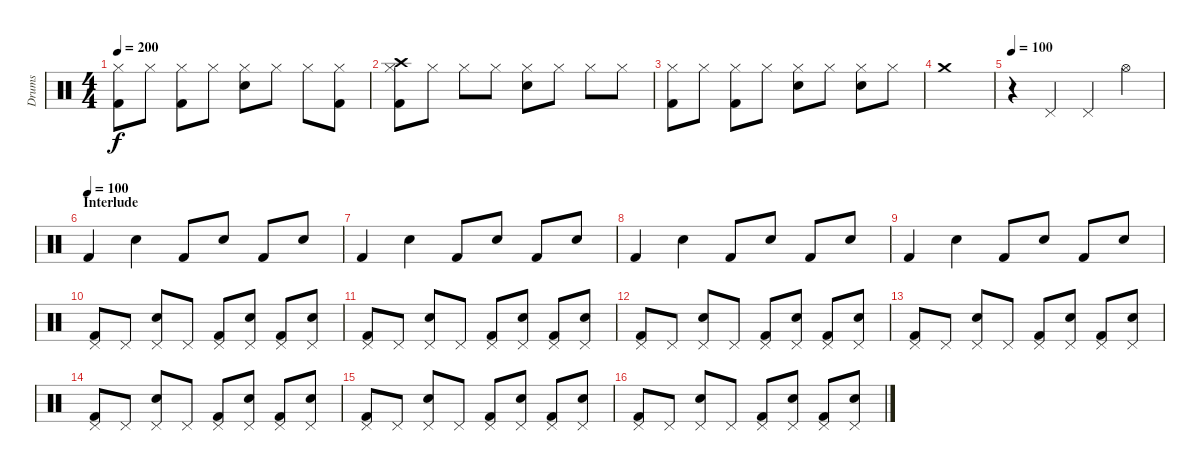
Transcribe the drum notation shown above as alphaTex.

\track ("Drums" "Drums") {instrument percussion}
\staff {score}
\articulation defaults
\ts (4 4)
\tempo 200
\clef neutral
\ks c
("Hi-Hat (closed)" "Kick (hit) 2").8{dy f} "Hi-Hat (closed)".8 ("Hi-Hat (closed)" "Kick (hit) 2").8 "Hi-Hat (closed)".8 ("Hi-Hat (closed)" "Electric Snare (hit)").8 "Hi-Hat (closed)".8 "Hi-Hat (closed)".8 ("Hi-Hat (closed)" "Kick (hit) 2").8 |
("Crash high (hit)" "Hi-Hat (closed)" "Kick (hit) 2").8 "Hi-Hat (closed)".8 "Hi-Hat (closed)".8 "Hi-Hat (closed)".8 ("Hi-Hat (closed)" "Electric Snare (hit)").8 "Hi-Hat (closed)".8 "Hi-Hat (closed)".8 "Hi-Hat (closed)".8 |
("Hi-Hat (closed)" "Kick (hit) 2").8 "Hi-Hat (closed)".8 ("Hi-Hat (closed)" "Kick (hit) 2").8 "Hi-Hat (closed)".8 ("Hi-Hat (closed)" "Electric Snare (hit)").8 "Hi-Hat (closed)".8 ("Hi-Hat (closed)" "Electric Snare (hit)").8 "Hi-Hat (closed)".8 |
"Crash medium (hit)".1 |
\tempo 100
r.4 "Pedal Hi-Hat (hit)".4 "Pedal Hi-Hat (hit)".4 "Hi-Hat (open)".4 |
\section ("" "Interlude")
\tempo (100)
"Kick (hit) 2".4 "Electric Snare (hit)".4 "Kick (hit) 2".8 "Electric Snare (hit)".8 "Kick (hit) 2".8 "Electric Snare (hit)".8 |
"Kick (hit) 2".4 "Electric Snare (hit)".4 "Kick (hit) 2".8 "Electric Snare (hit)".8 "Kick (hit) 2".8 "Electric Snare (hit)".8 |
"Kick (hit) 2".4 "Electric Snare (hit)".4 "Kick (hit) 2".8 "Electric Snare (hit)".8 "Kick (hit) 2".8 "Electric Snare (hit)".8 |
"Kick (hit) 2".4 "Electric Snare (hit)".4 "Kick (hit) 2".8 "Electric Snare (hit)".8 "Kick (hit) 2".8 "Electric Snare (hit)".8 |
("Pedal Hi-Hat (hit)" "Kick (hit) 2").8 "Pedal Hi-Hat (hit)".8 ("Pedal Hi-Hat (hit)" "Electric Snare (hit)").8 "Pedal Hi-Hat (hit)".8 ("Pedal Hi-Hat (hit)" "Kick (hit) 2").8 ("Pedal Hi-Hat (hit)" "Electric Snare (hit)").8 ("Pedal Hi-Hat (hit)" "Kick (hit) 2").8 ("Pedal Hi-Hat (hit)" "Electric Snare (hit)").8 |
("Pedal Hi-Hat (hit)" "Kick (hit) 2").8 "Pedal Hi-Hat (hit)".8 ("Pedal Hi-Hat (hit)" "Electric Snare (hit)").8 "Pedal Hi-Hat (hit)".8 ("Pedal Hi-Hat (hit)" "Kick (hit) 2").8 ("Pedal Hi-Hat (hit)" "Electric Snare (hit)").8 ("Pedal Hi-Hat (hit)" "Kick (hit) 2").8 ("Pedal Hi-Hat (hit)" "Electric Snare (hit)").8 |
("Pedal Hi-Hat (hit)" "Kick (hit) 2").8 "Pedal Hi-Hat (hit)".8 ("Pedal Hi-Hat (hit)" "Electric Snare (hit)").8 "Pedal Hi-Hat (hit)".8 ("Pedal Hi-Hat (hit)" "Kick (hit) 2").8 ("Pedal Hi-Hat (hit)" "Electric Snare (hit)").8 ("Pedal Hi-Hat (hit)" "Kick (hit) 2").8 ("Pedal Hi-Hat (hit)" "Electric Snare (hit)").8 |
("Pedal Hi-Hat (hit)" "Kick (hit) 2").8 "Pedal Hi-Hat (hit)".8 ("Pedal Hi-Hat (hit)" "Electric Snare (hit)").8 "Pedal Hi-Hat (hit)".8 ("Pedal Hi-Hat (hit)" "Kick (hit) 2").8 ("Pedal Hi-Hat (hit)" "Electric Snare (hit)").8 ("Pedal Hi-Hat (hit)" "Kick (hit) 2").8 ("Pedal Hi-Hat (hit)" "Electric Snare (hit)").8 |
("Pedal Hi-Hat (hit)" "Kick (hit) 2").8 "Pedal Hi-Hat (hit)".8 ("Pedal Hi-Hat (hit)" "Electric Snare (hit)").8 "Pedal Hi-Hat (hit)".8 ("Pedal Hi-Hat (hit)" "Kick (hit) 2").8 ("Pedal Hi-Hat (hit)" "Electric Snare (hit)").8 ("Pedal Hi-Hat (hit)" "Kick (hit) 2").8 ("Pedal Hi-Hat (hit)" "Electric Snare (hit)").8 |
("Pedal Hi-Hat (hit)" "Kick (hit) 2").8 "Pedal Hi-Hat (hit)".8 ("Pedal Hi-Hat (hit)" "Electric Snare (hit)").8 "Pedal Hi-Hat (hit)".8 ("Pedal Hi-Hat (hit)" "Kick (hit) 2").8 ("Pedal Hi-Hat (hit)" "Electric Snare (hit)").8 ("Pedal Hi-Hat (hit)" "Kick (hit) 2").8 ("Pedal Hi-Hat (hit)" "Electric Snare (hit)").8 |
("Pedal Hi-Hat (hit)" "Kick (hit) 2").8 "Pedal Hi-Hat (hit)".8 ("Pedal Hi-Hat (hit)" "Electric Snare (hit)").8 "Pedal Hi-Hat (hit)".8 ("Pedal Hi-Hat (hit)" "Kick (hit) 2").8 ("Pedal Hi-Hat (hit)" "Electric Snare (hit)").8 ("Pedal Hi-Hat (hit)" "Kick (hit) 2").8 ("Pedal Hi-Hat (hit)" "Electric Snare (hit)").8
